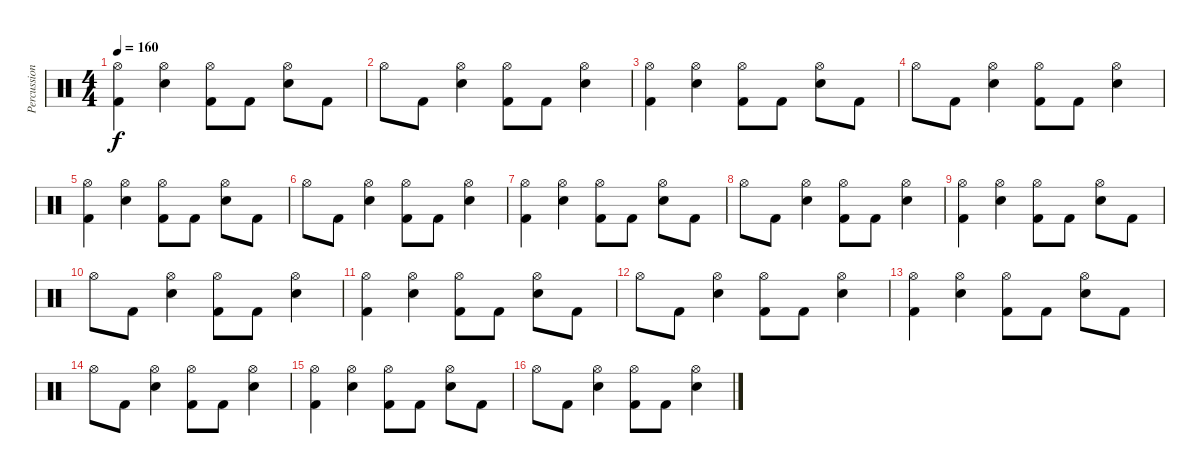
\track ("Percussion" "Percussion") {instrument percussion}
\staff {score}
\articulation defaults
\ts (4 4)
\tempo 160
\clef neutral
\ks c
("Hi-Hat (open)" "Kick (hit) 2").4{dy f} ("Hi-Hat (open)" "Snare (hit) 2").4 ("Hi-Hat (open)" "Kick (hit) 2").8 "Kick (hit) 2".8 ("Hi-Hat (open)" "Snare (hit) 2").8 "Kick (hit) 2".8 |
"Hi-Hat (open)".8 "Kick (hit) 2".8 ("Hi-Hat (open)" "Snare (hit) 2").4 ("Hi-Hat (open)" "Kick (hit) 2").8 "Kick (hit) 2".8 ("Hi-Hat (open)" "Snare (hit) 2").4 |
("Hi-Hat (open)" "Kick (hit) 2").4 ("Hi-Hat (open)" "Snare (hit) 2").4 ("Hi-Hat (open)" "Kick (hit) 2").8 "Kick (hit) 2".8 ("Hi-Hat (open)" "Snare (hit) 2").8 "Kick (hit) 2".8 |
"Hi-Hat (open)".8 "Kick (hit) 2".8 ("Hi-Hat (open)" "Snare (hit) 2").4 ("Hi-Hat (open)" "Kick (hit) 2").8 "Kick (hit) 2".8 ("Hi-Hat (open)" "Snare (hit) 2").4 |
("Hi-Hat (open)" "Kick (hit) 2").4 ("Hi-Hat (open)" "Snare (hit) 2").4 ("Hi-Hat (open)" "Kick (hit) 2").8 "Kick (hit) 2".8 ("Hi-Hat (open)" "Snare (hit) 2").8 "Kick (hit) 2".8 |
"Hi-Hat (open)".8 "Kick (hit) 2".8 ("Hi-Hat (open)" "Snare (hit) 2").4 ("Hi-Hat (open)" "Kick (hit) 2").8 "Kick (hit) 2".8 ("Hi-Hat (open)" "Snare (hit) 2").4 |
("Hi-Hat (open)" "Kick (hit) 2").4 ("Hi-Hat (open)" "Snare (hit) 2").4 ("Hi-Hat (open)" "Kick (hit) 2").8 "Kick (hit) 2".8 ("Hi-Hat (open)" "Snare (hit) 2").8 "Kick (hit) 2".8 |
"Hi-Hat (open)".8 "Kick (hit) 2".8 ("Hi-Hat (open)" "Snare (hit) 2").4 ("Hi-Hat (open)" "Kick (hit) 2").8 "Kick (hit) 2".8 ("Hi-Hat (open)" "Snare (hit) 2").4 |
("Hi-Hat (open)" "Kick (hit) 2").4 ("Hi-Hat (open)" "Snare (hit) 2").4 ("Hi-Hat (open)" "Kick (hit) 2").8 "Kick (hit) 2".8 ("Hi-Hat (open)" "Snare (hit) 2").8 "Kick (hit) 2".8 |
"Hi-Hat (open)".8 "Kick (hit) 2".8 ("Hi-Hat (open)" "Snare (hit) 2").4 ("Hi-Hat (open)" "Kick (hit) 2").8 "Kick (hit) 2".8 ("Hi-Hat (open)" "Snare (hit) 2").4 |
("Hi-Hat (open)" "Kick (hit) 2").4 ("Hi-Hat (open)" "Snare (hit) 2").4 ("Hi-Hat (open)" "Kick (hit) 2").8 "Kick (hit) 2".8 ("Hi-Hat (open)" "Snare (hit) 2").8 "Kick (hit) 2".8 |
"Hi-Hat (open)".8 "Kick (hit) 2".8 ("Hi-Hat (open)" "Snare (hit) 2").4 ("Hi-Hat (open)" "Kick (hit) 2").8 "Kick (hit) 2".8 ("Hi-Hat (open)" "Snare (hit) 2").4 |
("Hi-Hat (open)" "Kick (hit) 2").4 ("Hi-Hat (open)" "Snare (hit) 2").4 ("Hi-Hat (open)" "Kick (hit) 2").8 "Kick (hit) 2".8 ("Hi-Hat (open)" "Snare (hit) 2").8 "Kick (hit) 2".8 |
"Hi-Hat (open)".8 "Kick (hit) 2".8 ("Hi-Hat (open)" "Snare (hit) 2").4 ("Hi-Hat (open)" "Kick (hit) 2").8 "Kick (hit) 2".8 ("Hi-Hat (open)" "Snare (hit) 2").4 |
("Hi-Hat (open)" "Kick (hit) 2").4 ("Hi-Hat (open)" "Snare (hit) 2").4 ("Hi-Hat (open)" "Kick (hit) 2").8 "Kick (hit) 2".8 ("Hi-Hat (open)" "Snare (hit) 2").8 "Kick (hit) 2".8 |
"Hi-Hat (open)".8 "Kick (hit) 2".8 ("Hi-Hat (open)" "Snare (hit) 2").4 ("Hi-Hat (open)" "Kick (hit) 2").8 "Kick (hit) 2".8 ("Hi-Hat (open)" "Snare (hit) 2").4
